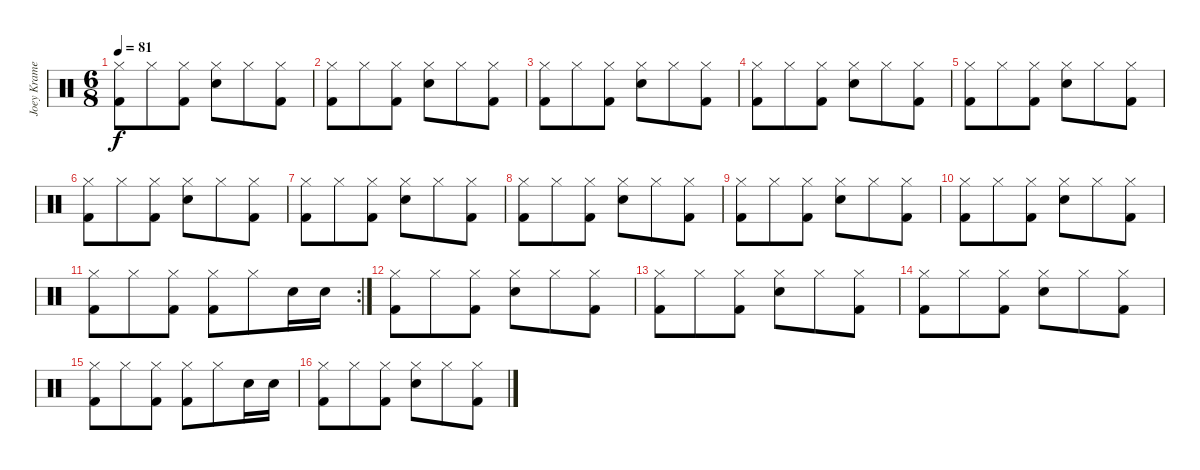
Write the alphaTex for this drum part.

\track ("Joey Kramer" "Joey Krame") {instrument percussion}
\staff {score}
\articulation defaults
\ts (6 8)
\tempo 81
\clef neutral
\ks c
("Hi-Hat (closed)" "Kick (hit) 2").8{dy f} "Hi-Hat (closed)".8 ("Hi-Hat (closed)" "Kick (hit) 2").8 ("Hi-Hat (closed)" "Snare (hit) 2").8 "Hi-Hat (closed)".8 ("Hi-Hat (closed)" "Kick (hit) 2").8 |
("Hi-Hat (closed)" "Kick (hit) 2").8 "Hi-Hat (closed)".8 ("Hi-Hat (closed)" "Kick (hit) 2").8 ("Hi-Hat (closed)" "Snare (hit) 2").8 "Hi-Hat (closed)".8 ("Hi-Hat (closed)" "Kick (hit) 2").8 |
("Hi-Hat (closed)" "Kick (hit) 2").8 "Hi-Hat (closed)".8 ("Hi-Hat (closed)" "Kick (hit) 2").8 ("Hi-Hat (closed)" "Snare (hit) 2").8 "Hi-Hat (closed)".8 ("Hi-Hat (closed)" "Kick (hit) 2").8 |
("Hi-Hat (closed)" "Kick (hit) 2").8 "Hi-Hat (closed)".8 ("Hi-Hat (closed)" "Kick (hit) 2").8 ("Hi-Hat (closed)" "Snare (hit) 2").8 "Hi-Hat (closed)".8 ("Hi-Hat (closed)" "Kick (hit) 2").8 |
("Hi-Hat (closed)" "Kick (hit) 2").8 "Hi-Hat (closed)".8 ("Hi-Hat (closed)" "Kick (hit) 2").8 ("Hi-Hat (closed)" "Snare (hit) 2").8 "Hi-Hat (closed)".8 ("Hi-Hat (closed)" "Kick (hit) 2").8 |
("Hi-Hat (closed)" "Kick (hit) 2").8 "Hi-Hat (closed)".8 ("Hi-Hat (closed)" "Kick (hit) 2").8 ("Hi-Hat (closed)" "Snare (hit) 2").8 "Hi-Hat (closed)".8 ("Hi-Hat (closed)" "Kick (hit) 2").8 |
("Hi-Hat (closed)" "Kick (hit) 2").8 "Hi-Hat (closed)".8 ("Hi-Hat (closed)" "Kick (hit) 2").8 ("Hi-Hat (closed)" "Snare (hit) 2").8 "Hi-Hat (closed)".8 ("Hi-Hat (closed)" "Kick (hit) 2").8 |
("Hi-Hat (closed)" "Kick (hit) 2").8 "Hi-Hat (closed)".8 ("Hi-Hat (closed)" "Kick (hit) 2").8 ("Hi-Hat (closed)" "Snare (hit) 2").8 "Hi-Hat (closed)".8 ("Hi-Hat (closed)" "Kick (hit) 2").8 |
("Hi-Hat (closed)" "Kick (hit) 2").8 "Hi-Hat (closed)".8 ("Hi-Hat (closed)" "Kick (hit) 2").8 ("Hi-Hat (closed)" "Snare (hit) 2").8 "Hi-Hat (closed)".8 ("Hi-Hat (closed)" "Kick (hit) 2").8 |
("Hi-Hat (closed)" "Kick (hit) 2").8 "Hi-Hat (closed)".8 ("Hi-Hat (closed)" "Kick (hit) 2").8 ("Hi-Hat (closed)" "Snare (hit) 2").8 "Hi-Hat (closed)".8 ("Hi-Hat (closed)" "Kick (hit) 2").8 |
\rc 2
("Hi-Hat (closed)" "Kick (hit) 2").8 "Hi-Hat (closed)".8 ("Hi-Hat (closed)" "Kick (hit) 2").8 ("Hi-Hat (closed)" "Kick (hit) 2").8 "Hi-Hat (closed)".8 "Snare (hit) 2".16 "Snare (hit) 2".16 |
("Hi-Hat (closed)" "Kick (hit) 2").8 "Hi-Hat (closed)".8 ("Hi-Hat (closed)" "Kick (hit) 2").8 ("Hi-Hat (closed)" "Snare (hit) 2").8 "Hi-Hat (closed)".8 ("Hi-Hat (closed)" "Kick (hit) 2").8 |
("Hi-Hat (closed)" "Kick (hit) 2").8 "Hi-Hat (closed)".8 ("Hi-Hat (closed)" "Kick (hit) 2").8 ("Hi-Hat (closed)" "Snare (hit) 2").8 "Hi-Hat (closed)".8 ("Hi-Hat (closed)" "Kick (hit) 2").8 |
("Hi-Hat (closed)" "Kick (hit) 2").8 "Hi-Hat (closed)".8 ("Hi-Hat (closed)" "Kick (hit) 2").8 ("Hi-Hat (closed)" "Snare (hit) 2").8 "Hi-Hat (closed)".8 ("Hi-Hat (closed)" "Kick (hit) 2").8 |
("Hi-Hat (closed)" "Kick (hit) 2").8 "Hi-Hat (closed)".8 ("Hi-Hat (closed)" "Kick (hit) 2").8 ("Hi-Hat (closed)" "Kick (hit) 2").8 "Hi-Hat (closed)".8 "Snare (hit) 2".16 "Snare (hit) 2".16 |
("Hi-Hat (closed)" "Kick (hit) 2").8 "Hi-Hat (closed)".8 ("Hi-Hat (closed)" "Kick (hit) 2").8 ("Hi-Hat (closed)" "Snare (hit) 2").8 "Hi-Hat (closed)".8 ("Hi-Hat (closed)" "Kick (hit) 2").8
